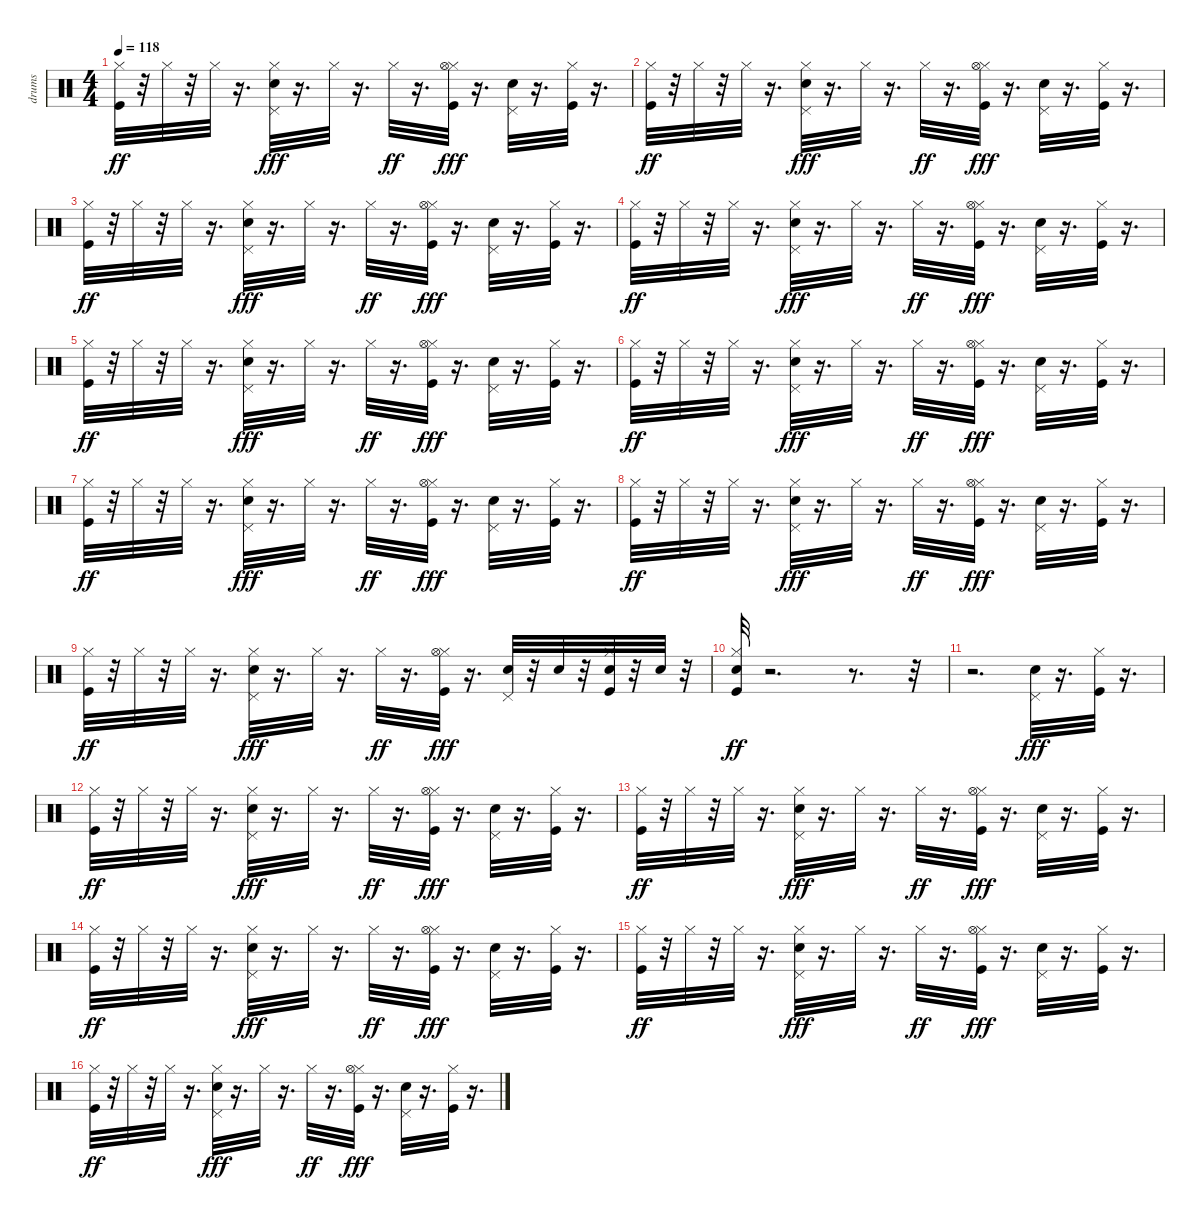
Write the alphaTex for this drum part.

\track ("drums   " "drums   ") {instrument percussion}
\staff {score}
\articulation defaults
\ts (4 4)
\tempo 118
\clef neutral
\ks c
("Kick (hit)" "Hi-Hat (closed)").32{dy ff} r.32 "Hi-Hat (closed)".32 r.32 "Hi-Hat (closed)".32 r.16{d} ("Electric Snare (hit)" "Hi-Hat (closed)" "Pedal Hi-Hat (hit)").32{dy fff} r.16{d} "Hi-Hat (closed)".32 r.16{d} "Hi-Hat (closed)".32{dy ff} r.16{d} ("Kick (hit)" "Hi-Hat (closed)" "Hi-Hat (open)").32{dy fff} r.16{d} ("Electric Snare (hit)" "Pedal Hi-Hat (hit)").32 r.16{d} ("Kick (hit)" "Hi-Hat (closed)").32 r.16{d} |
("Kick (hit)" "Hi-Hat (closed)").32{dy ff} r.32 "Hi-Hat (closed)".32 r.32 "Hi-Hat (closed)".32 r.16{d} ("Electric Snare (hit)" "Hi-Hat (closed)" "Pedal Hi-Hat (hit)").32{dy fff} r.16{d} "Hi-Hat (closed)".32 r.16{d} "Hi-Hat (closed)".32{dy ff} r.16{d} ("Kick (hit)" "Hi-Hat (closed)" "Hi-Hat (open)").32{dy fff} r.16{d} ("Electric Snare (hit)" "Pedal Hi-Hat (hit)").32 r.16{d} ("Kick (hit)" "Hi-Hat (closed)").32 r.16{d} |
("Kick (hit)" "Hi-Hat (closed)").32{dy ff} r.32 "Hi-Hat (closed)".32 r.32 "Hi-Hat (closed)".32 r.16{d} ("Electric Snare (hit)" "Hi-Hat (closed)" "Pedal Hi-Hat (hit)").32{dy fff} r.16{d} "Hi-Hat (closed)".32 r.16{d} "Hi-Hat (closed)".32{dy ff} r.16{d} ("Kick (hit)" "Hi-Hat (closed)" "Hi-Hat (open)").32{dy fff} r.16{d} ("Electric Snare (hit)" "Pedal Hi-Hat (hit)").32 r.16{d} ("Kick (hit)" "Hi-Hat (closed)").32 r.16{d} |
("Kick (hit)" "Hi-Hat (closed)").32{dy ff} r.32 "Hi-Hat (closed)".32 r.32 "Hi-Hat (closed)".32 r.16{d} ("Electric Snare (hit)" "Hi-Hat (closed)" "Pedal Hi-Hat (hit)").32{dy fff} r.16{d} "Hi-Hat (closed)".32 r.16{d} "Hi-Hat (closed)".32{dy ff} r.16{d} ("Kick (hit)" "Hi-Hat (closed)" "Hi-Hat (open)").32{dy fff} r.16{d} ("Electric Snare (hit)" "Pedal Hi-Hat (hit)").32 r.16{d} ("Kick (hit)" "Hi-Hat (closed)").32 r.16{d} |
("Kick (hit)" "Hi-Hat (closed)").32{dy ff} r.32 "Hi-Hat (closed)".32 r.32 "Hi-Hat (closed)".32 r.16{d} ("Electric Snare (hit)" "Hi-Hat (closed)" "Pedal Hi-Hat (hit)").32{dy fff} r.16{d} "Hi-Hat (closed)".32 r.16{d} "Hi-Hat (closed)".32{dy ff} r.16{d} ("Kick (hit)" "Hi-Hat (closed)" "Hi-Hat (open)").32{dy fff} r.16{d} ("Electric Snare (hit)" "Pedal Hi-Hat (hit)").32 r.16{d} ("Kick (hit)" "Hi-Hat (closed)").32 r.16{d} |
("Kick (hit)" "Hi-Hat (closed)").32{dy ff} r.32 "Hi-Hat (closed)".32 r.32 "Hi-Hat (closed)".32 r.16{d} ("Electric Snare (hit)" "Hi-Hat (closed)" "Pedal Hi-Hat (hit)").32{dy fff} r.16{d} "Hi-Hat (closed)".32 r.16{d} "Hi-Hat (closed)".32{dy ff} r.16{d} ("Kick (hit)" "Hi-Hat (closed)" "Hi-Hat (open)").32{dy fff} r.16{d} ("Electric Snare (hit)" "Pedal Hi-Hat (hit)").32 r.16{d} ("Kick (hit)" "Hi-Hat (closed)").32 r.16{d} |
("Kick (hit)" "Hi-Hat (closed)").32{dy ff} r.32 "Hi-Hat (closed)".32 r.32 "Hi-Hat (closed)".32 r.16{d} ("Electric Snare (hit)" "Hi-Hat (closed)" "Pedal Hi-Hat (hit)").32{dy fff} r.16{d} "Hi-Hat (closed)".32 r.16{d} "Hi-Hat (closed)".32{dy ff} r.16{d} ("Kick (hit)" "Hi-Hat (closed)" "Hi-Hat (open)").32{dy fff} r.16{d} ("Electric Snare (hit)" "Pedal Hi-Hat (hit)").32 r.16{d} ("Kick (hit)" "Hi-Hat (closed)").32 r.16{d} |
("Kick (hit)" "Hi-Hat (closed)").32{dy ff} r.32 "Hi-Hat (closed)".32 r.32 "Hi-Hat (closed)".32 r.16{d} ("Electric Snare (hit)" "Hi-Hat (closed)" "Pedal Hi-Hat (hit)").32{dy fff} r.16{d} "Hi-Hat (closed)".32 r.16{d} "Hi-Hat (closed)".32{dy ff} r.16{d} ("Kick (hit)" "Hi-Hat (closed)" "Hi-Hat (open)").32{dy fff} r.16{d} ("Electric Snare (hit)" "Pedal Hi-Hat (hit)").32 r.16{d} ("Kick (hit)" "Hi-Hat (closed)").32 r.16{d} |
("Kick (hit)" "Hi-Hat (closed)").32{dy ff} r.32 "Hi-Hat (closed)".32 r.32 "Hi-Hat (closed)".32 r.16{d} ("Electric Snare (hit)" "Hi-Hat (closed)" "Pedal Hi-Hat (hit)").32{dy fff} r.16{d} "Hi-Hat (closed)".32 r.16{d} "Hi-Hat (closed)".32{dy ff} r.16{d} ("Kick (hit)" "Hi-Hat (closed)" "Hi-Hat (open)").32{dy fff} r.16{d} ("Electric Snare (hit)" "Pedal Hi-Hat (hit)").32 r.32 "Electric Snare (hit)".32 r.32 ("Kick (hit)" "Electric Snare (hit)" "Hi-Hat (closed)").32 r.32 "Electric Snare (hit)".32 r.32 |
("Kick (hit)" "Electric Snare (hit)" "Hi-Hat (closed)").32{dy ff} r.2{d} r.8{d} r.32 |
r.2{d} ("Electric Snare (hit)" "Pedal Hi-Hat (hit)").32{dy fff} r.16{d} ("Kick (hit)" "Hi-Hat (closed)").32 r.16{d} |
("Kick (hit)" "Hi-Hat (closed)").32{dy ff} r.32 "Hi-Hat (closed)".32 r.32 "Hi-Hat (closed)".32 r.16{d} ("Electric Snare (hit)" "Hi-Hat (closed)" "Pedal Hi-Hat (hit)").32{dy fff} r.16{d} "Hi-Hat (closed)".32 r.16{d} "Hi-Hat (closed)".32{dy ff} r.16{d} ("Kick (hit)" "Hi-Hat (closed)" "Hi-Hat (open)").32{dy fff} r.16{d} ("Electric Snare (hit)" "Pedal Hi-Hat (hit)").32 r.16{d} ("Kick (hit)" "Hi-Hat (closed)").32 r.16{d} |
("Kick (hit)" "Hi-Hat (closed)").32{dy ff} r.32 "Hi-Hat (closed)".32 r.32 "Hi-Hat (closed)".32 r.16{d} ("Electric Snare (hit)" "Hi-Hat (closed)" "Pedal Hi-Hat (hit)").32{dy fff} r.16{d} "Hi-Hat (closed)".32 r.16{d} "Hi-Hat (closed)".32{dy ff} r.16{d} ("Kick (hit)" "Hi-Hat (closed)" "Hi-Hat (open)").32{dy fff} r.16{d} ("Electric Snare (hit)" "Pedal Hi-Hat (hit)").32 r.16{d} ("Kick (hit)" "Hi-Hat (closed)").32 r.16{d} |
("Kick (hit)" "Hi-Hat (closed)").32{dy ff} r.32 "Hi-Hat (closed)".32 r.32 "Hi-Hat (closed)".32 r.16{d} ("Electric Snare (hit)" "Hi-Hat (closed)" "Pedal Hi-Hat (hit)").32{dy fff} r.16{d} "Hi-Hat (closed)".32 r.16{d} "Hi-Hat (closed)".32{dy ff} r.16{d} ("Kick (hit)" "Hi-Hat (closed)" "Hi-Hat (open)").32{dy fff} r.16{d} ("Electric Snare (hit)" "Pedal Hi-Hat (hit)").32 r.16{d} ("Kick (hit)" "Hi-Hat (closed)").32 r.16{d} |
("Kick (hit)" "Hi-Hat (closed)").32{dy ff} r.32 "Hi-Hat (closed)".32 r.32 "Hi-Hat (closed)".32 r.16{d} ("Electric Snare (hit)" "Hi-Hat (closed)" "Pedal Hi-Hat (hit)").32{dy fff} r.16{d} "Hi-Hat (closed)".32 r.16{d} "Hi-Hat (closed)".32{dy ff} r.16{d} ("Kick (hit)" "Hi-Hat (closed)" "Hi-Hat (open)").32{dy fff} r.16{d} ("Electric Snare (hit)" "Pedal Hi-Hat (hit)").32 r.16{d} ("Kick (hit)" "Hi-Hat (closed)").32 r.16{d} |
("Kick (hit)" "Hi-Hat (closed)").32{dy ff} r.32 "Hi-Hat (closed)".32 r.32 "Hi-Hat (closed)".32 r.16{d} ("Electric Snare (hit)" "Hi-Hat (closed)" "Pedal Hi-Hat (hit)").32{dy fff} r.16{d} "Hi-Hat (closed)".32 r.16{d} "Hi-Hat (closed)".32{dy ff} r.16{d} ("Kick (hit)" "Hi-Hat (closed)" "Hi-Hat (open)").32{dy fff} r.16{d} ("Electric Snare (hit)" "Pedal Hi-Hat (hit)").32 r.16{d} ("Kick (hit)" "Hi-Hat (closed)").32 r.16{d}
